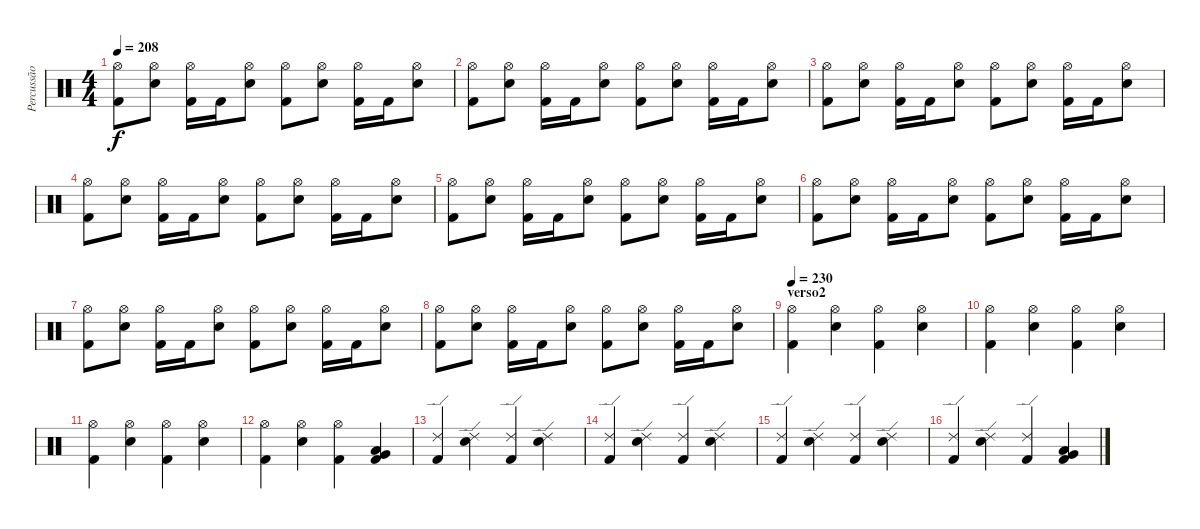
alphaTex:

\track ("Percussão" "Percussão") {instrument percussion}
\staff {score}
\articulation defaults
\ts (4 4)
\tempo 208
\clef neutral
\ks c
("Hi-Hat (open)" "Kick (hit) 2").8{dy f} ("Hi-Hat (open)" "Snare (hit) 2").8 ("Hi-Hat (open)" "Kick (hit) 2").16 "Kick (hit) 2".16 ("Hi-Hat (open)" "Snare (hit) 2").8 ("Hi-Hat (open)" "Kick (hit) 2").8 ("Hi-Hat (open)" "Snare (hit) 2").8 ("Hi-Hat (open)" "Kick (hit) 2").16 "Kick (hit) 2".16 ("Hi-Hat (open)" "Snare (hit) 2").8 |
("Hi-Hat (open)" "Kick (hit) 2").8 ("Hi-Hat (open)" "Snare (hit) 2").8 ("Hi-Hat (open)" "Kick (hit) 2").16 "Kick (hit) 2".16 ("Hi-Hat (open)" "Snare (hit) 2").8 ("Hi-Hat (open)" "Kick (hit) 2").8 ("Hi-Hat (open)" "Snare (hit) 2").8 ("Hi-Hat (open)" "Kick (hit) 2").16 "Kick (hit) 2".16 ("Hi-Hat (open)" "Snare (hit) 2").8 |
("Hi-Hat (open)" "Kick (hit) 2").8 ("Hi-Hat (open)" "Snare (hit) 2").8 ("Hi-Hat (open)" "Kick (hit) 2").16 "Kick (hit) 2".16 ("Hi-Hat (open)" "Snare (hit) 2").8 ("Hi-Hat (open)" "Kick (hit) 2").8 ("Hi-Hat (open)" "Snare (hit) 2").8 ("Hi-Hat (open)" "Kick (hit) 2").16 "Kick (hit) 2".16 ("Hi-Hat (open)" "Snare (hit) 2").8 |
("Hi-Hat (open)" "Kick (hit) 2").8 ("Hi-Hat (open)" "Snare (hit) 2").8 ("Hi-Hat (open)" "Kick (hit) 2").16 "Kick (hit) 2".16 ("Hi-Hat (open)" "Snare (hit) 2").8 ("Hi-Hat (open)" "Kick (hit) 2").8 ("Hi-Hat (open)" "Snare (hit) 2").8 ("Hi-Hat (open)" "Kick (hit) 2").16 "Kick (hit) 2".16 ("Hi-Hat (open)" "Snare (hit) 2").8 |
("Hi-Hat (open)" "Kick (hit) 2").8 ("Hi-Hat (open)" "Snare (hit) 2").8 ("Hi-Hat (open)" "Kick (hit) 2").16 "Kick (hit) 2".16 ("Hi-Hat (open)" "Snare (hit) 2").8 ("Hi-Hat (open)" "Kick (hit) 2").8 ("Hi-Hat (open)" "Snare (hit) 2").8 ("Hi-Hat (open)" "Kick (hit) 2").16 "Kick (hit) 2".16 ("Hi-Hat (open)" "Snare (hit) 2").8 |
("Hi-Hat (open)" "Kick (hit) 2").8 ("Hi-Hat (open)" "Snare (hit) 2").8 ("Hi-Hat (open)" "Kick (hit) 2").16 "Kick (hit) 2".16 ("Hi-Hat (open)" "Snare (hit) 2").8 ("Hi-Hat (open)" "Kick (hit) 2").8 ("Hi-Hat (open)" "Snare (hit) 2").8 ("Hi-Hat (open)" "Kick (hit) 2").16 "Kick (hit) 2".16 ("Hi-Hat (open)" "Snare (hit) 2").8 |
("Hi-Hat (open)" "Kick (hit) 2").8 ("Hi-Hat (open)" "Snare (hit) 2").8 ("Hi-Hat (open)" "Kick (hit) 2").16 "Kick (hit) 2".16 ("Hi-Hat (open)" "Snare (hit) 2").8 ("Hi-Hat (open)" "Kick (hit) 2").8 ("Hi-Hat (open)" "Snare (hit) 2").8 ("Hi-Hat (open)" "Kick (hit) 2").16 "Kick (hit) 2".16 ("Hi-Hat (open)" "Snare (hit) 2").8 |
("Hi-Hat (open)" "Kick (hit) 2").8 ("Hi-Hat (open)" "Snare (hit) 2").8 ("Hi-Hat (open)" "Kick (hit) 2").16 "Kick (hit) 2".16 ("Hi-Hat (open)" "Snare (hit) 2").8 ("Hi-Hat (open)" "Kick (hit) 2").8 ("Hi-Hat (open)" "Snare (hit) 2").8 ("Hi-Hat (open)" "Kick (hit) 2").16 "Kick (hit) 2".16 ("Hi-Hat (open)" "Snare (hit) 2").8 |
\section ("" "verso2")
\tempo 230
("Hi-Hat (open)" "Kick (hit) 2").4 ("Hi-Hat (open)" "Snare (hit) 2").4 ("Hi-Hat (open)" "Kick (hit) 2").4 ("Hi-Hat (open)" "Snare (hit) 2").4 |
("Hi-Hat (open)" "Kick (hit) 2").4 ("Hi-Hat (open)" "Snare (hit) 2").4 ("Hi-Hat (open)" "Kick (hit) 2").4 ("Hi-Hat (open)" "Snare (hit) 2").4 |
("Hi-Hat (open)" "Kick (hit) 2").4 ("Hi-Hat (open)" "Snare (hit) 2").4 ("Hi-Hat (open)" "Kick (hit) 2").4 ("Hi-Hat (open)" "Snare (hit) 2").4 |
("Hi-Hat (open)" "Kick (hit) 2").4 ("Hi-Hat (open)" "Snare (hit) 2").4 ("Hi-Hat (open)" "Kick (hit) 2").4 ("Low Tom (hit)" "Very Low Tom (hit)" "Kick (hit) 2").4 |
("Ride (edge) 2" "Kick (hit) 2").4 ("Ride (edge) 2" "Snare (hit) 2").4 ("Ride (edge) 2" "Kick (hit) 2").4 ("Ride (edge) 2" "Snare (hit) 2").4 |
("Ride (edge) 2" "Kick (hit) 2").4 ("Ride (edge) 2" "Snare (hit) 2").4 ("Ride (edge) 2" "Kick (hit) 2").4 ("Ride (edge) 2" "Snare (hit) 2").4 |
("Ride (edge) 2" "Kick (hit) 2").4 ("Ride (edge) 2" "Snare (hit) 2").4 ("Ride (edge) 2" "Kick (hit) 2").4 ("Ride (edge) 2" "Snare (hit) 2").4 |
("Ride (edge) 2" "Kick (hit) 2").4 ("Ride (edge) 2" "Snare (hit) 2").4 ("Ride (edge) 2" "Kick (hit) 2").4 ("Very Low Tom (hit)" "Low Tom (hit)" "Kick (hit) 2").4
